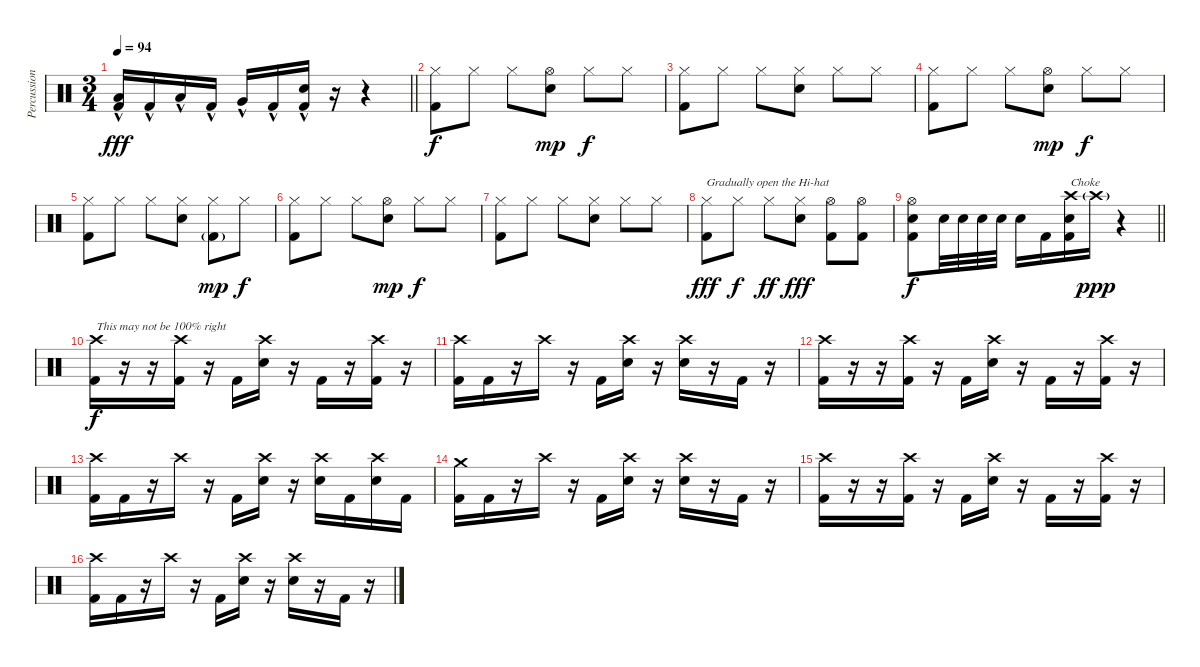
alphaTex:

\track ("Percussion" "Percussion") {instrument percussion}
\staff {score}
\articulation defaults
\ts (3 4)
\tempo 94
\clef neutral
\barLineRight lightlight
\ks c
("Low Floor Tom (hit)"{hac} "Kick (hit) 2"{hac}).16{dy fff} "Kick (hit) 2"{hac}.16 "Low Tom (hit)"{hac}.16 "Kick (hit) 2"{hac}.16 "Very Low Tom (hit)"{hac}.16 "Kick (hit) 2"{hac}.16 ("Snare (hit) 2"{hac} "Kick (hit) 2"{hac}).16 r.16 r.4 |
\section ("" "")
("Hi-Hat (closed)" "Kick (hit) 2").8{dy f} "Hi-Hat (closed)".8 "Hi-Hat (closed)".8 ("Hi-Hat (open)" "Snare (hit) 2").8{dy mp} "Hi-Hat (closed)".8{dy f} "Hi-Hat (closed)".8 |
("Hi-Hat (closed)" "Kick (hit) 2").8 "Hi-Hat (closed)".8 "Hi-Hat (closed)".8 ("Hi-Hat (closed)" "Snare (hit) 2").8 "Hi-Hat (closed)".8 "Hi-Hat (closed)".8 |
("Hi-Hat (closed)" "Kick (hit) 2").8 "Hi-Hat (closed)".8 "Hi-Hat (closed)".8 ("Hi-Hat (open)" "Snare (hit) 2").8{dy mp} "Hi-Hat (closed)".8{dy f} "Hi-Hat (closed)".8 |
("Hi-Hat (closed)" "Kick (hit) 2").8 "Hi-Hat (closed)".8 "Hi-Hat (closed)".8 ("Hi-Hat (closed)" "Snare (hit) 2").8 ("Hi-Hat (closed)" "Kick (hit) 2"{g}).8{dy mp} "Hi-Hat (closed)".8{dy f} |
("Hi-Hat (closed)" "Kick (hit) 2").8 "Hi-Hat (closed)".8 "Hi-Hat (closed)".8 ("Hi-Hat (open)" "Snare (hit) 2").8{dy mp} "Hi-Hat (closed)".8{dy f} "Hi-Hat (closed)".8 |
("Hi-Hat (closed)" "Kick (hit) 2").8 "Hi-Hat (closed)".8 "Hi-Hat (closed)".8 ("Hi-Hat (closed)" "Snare (hit) 2").8 "Hi-Hat (closed)".8 "Hi-Hat (closed)".8 |
("Hi-Hat (closed)" "Kick (hit) 2").8{txt "Gradually open the Hi-hat" dy fff} "Hi-Hat (closed)".8{dy f} "Hi-Hat (closed)".8{dy ff} ("Hi-Hat (closed)" "Snare (hit) 2").8{dy fff} ("Hi-Hat (open)" "Kick (hit) 2").8 ("Hi-Hat (open)" "Kick (hit) 2").8 |
\barLineRight lightlight
("Hi-Hat (open)" "Snare (hit) 2" "Kick (hit) 2").8{dy f} "Snare (hit) 2".32 "Snare (hit) 2".32 "Snare (hit) 2".32 "Snare (hit) 2".32 "Snare (hit) 2".16 "Kick (hit) 2".16 ("Crash high (hit)" "Snare (hit) 2" "Kick (hit) 2").16{txt "Choke"} "Crash high (hit)"{g}.16{dy ppp} r.4 |
\section ("" "")
("Crash high (hit)" "Kick (hit) 2").16{txt "This may not be 100% right" dy f} r.16 r.16 ("Crash high (hit)" "Kick (hit) 2").16 r.16 "Kick (hit) 2".16 ("Crash high (hit)" "Electric Snare (hit)").16 r.16 "Kick (hit) 2".16 r.16 ("Crash high (hit)" "Kick (hit) 2").16 r.16 |
("Crash high (hit)" "Kick (hit) 2").16 "Kick (hit) 2".16 r.16 "Crash high (hit)".16 r.16 "Kick (hit) 2".16 ("Crash high (hit)" "Electric Snare (hit)").16 r.16 ("Crash high (hit)" "Electric Snare (hit)").16 r.16 "Kick (hit) 2".16 r.16 |
("Crash high (hit)" "Kick (hit) 2").16 r.16 r.16 ("Crash high (hit)" "Kick (hit) 2").16 r.16 "Kick (hit) 2".16 ("Crash high (hit)" "Electric Snare (hit)").16 r.16 "Kick (hit) 2".16 r.16 ("Crash high (hit)" "Kick (hit) 2").16 r.16 |
("Crash high (hit)" "Kick (hit) 2").16 "Kick (hit) 2".16 r.16 "Crash high (hit)".16 r.16 "Kick (hit) 2".16 ("Crash high (hit)" "Electric Snare (hit)").16 r.16 ("Crash high (hit)" "Electric Snare (hit)").16 "Kick (hit) 2".16 ("Crash high (hit)" "Electric Snare (hit)").16 "Kick (hit) 2".16 |
("Crash medium (hit)" "Kick (hit) 2").16 "Kick (hit) 2".16 r.16 "Crash high (hit)".16 r.16 "Kick (hit) 2".16 ("Crash high (hit)" "Electric Snare (hit)").16 r.16 ("Crash high (hit)" "Electric Snare (hit)").16 r.16 "Kick (hit) 2".16 r.16 |
("Crash high (hit)" "Kick (hit) 2").16 r.16 r.16 ("Crash high (hit)" "Kick (hit) 2").16 r.16 "Kick (hit) 2".16 ("Crash high (hit)" "Electric Snare (hit)").16 r.16 "Kick (hit) 2".16 r.16 ("Crash high (hit)" "Kick (hit) 2").16 r.16 |
("Crash high (hit)" "Kick (hit) 2").16 "Kick (hit) 2".16 r.16 "Crash high (hit)".16 r.16 "Kick (hit) 2".16 ("Crash high (hit)" "Electric Snare (hit)").16 r.16 ("Crash high (hit)" "Electric Snare (hit)").16 r.16 "Kick (hit) 2".16 r.16
